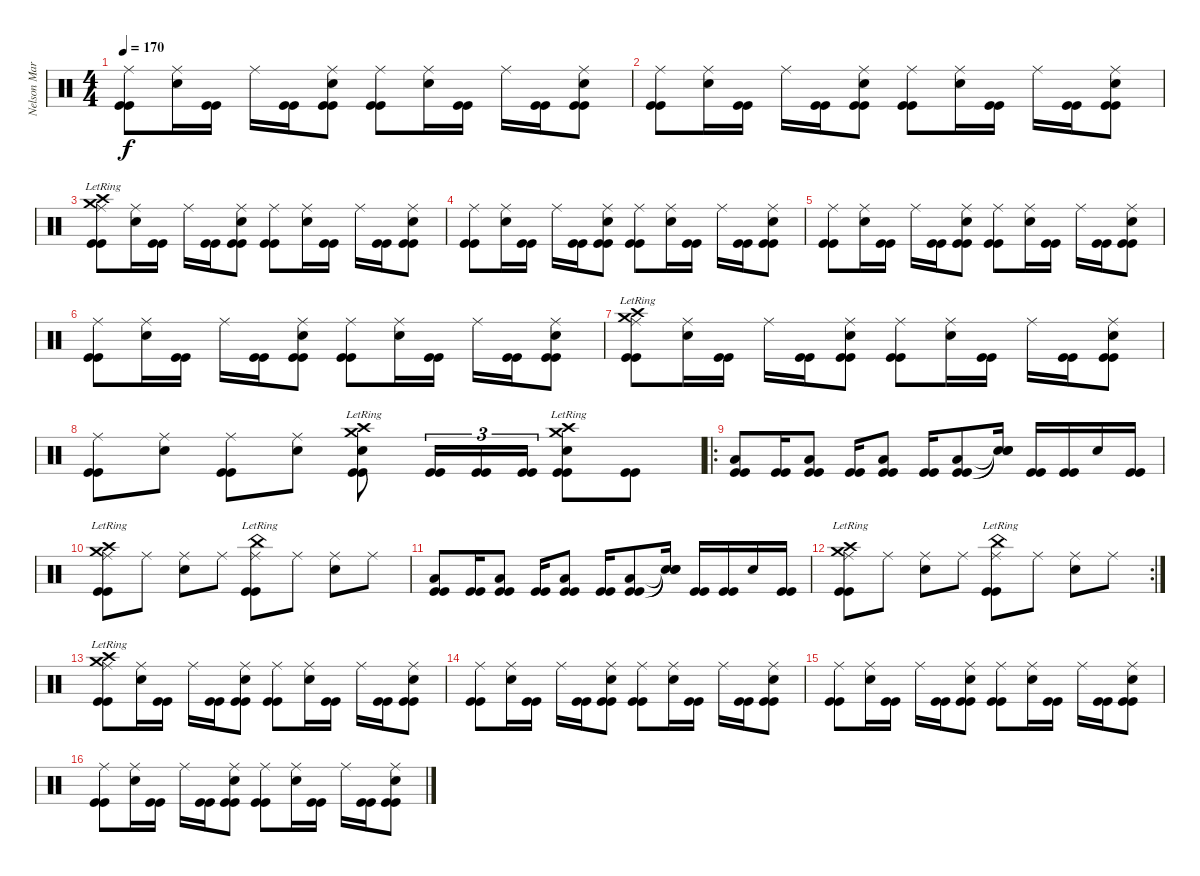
\track ("Nelson Maria" "Nelson Mar") {instrument percussion}
\staff {score}
\articulation defaults
\ts (4 4)
\tempo 170
\clef neutral
\ks c
("Ride (middle)" "Kick (hit)" "Kick (hit)").8{dy f} ("Snare (hit) 2" "Ride (middle)").16 ("Kick (hit)" "Kick (hit)").16 "Ride (middle)".16 ("Kick (hit)" "Kick (hit)").16 ("Snare (hit) 2" "Ride (middle)" "Kick (hit)" "Kick (hit)").8 ("Ride (middle)" "Kick (hit)" "Kick (hit)").8 ("Snare (hit) 2" "Ride (middle)").16 ("Kick (hit)" "Kick (hit)").16 "Ride (middle)".16 ("Kick (hit)" "Kick (hit)").16 ("Snare (hit) 2" "Ride (middle)" "Kick (hit)" "Kick (hit)").8 |
("Ride (middle)" "Kick (hit)" "Kick (hit)").8 ("Snare (hit) 2" "Ride (middle)").16 ("Kick (hit)" "Kick (hit)").16 "Ride (middle)".16 ("Kick (hit)" "Kick (hit)").16 ("Snare (hit) 2" "Ride (middle)" "Kick (hit)" "Kick (hit)").8 ("Ride (middle)" "Kick (hit)" "Kick (hit)").8 ("Snare (hit) 2" "Ride (middle)").16 ("Kick (hit)" "Kick (hit)").16 "Ride (middle)".16 ("Kick (hit)" "Kick (hit)").16 ("Snare (hit) 2" "Ride (middle)" "Kick (hit)" "Kick (hit)").8 |
("Crash high (hit)"{lr} "Crash medium (hit)"{lr} "Ride (middle)" "Kick (hit)" "Kick (hit)").8 ("Snare (hit) 2" "Ride (middle)").16 ("Kick (hit)" "Kick (hit)").16 "Ride (middle)".16 ("Kick (hit)" "Kick (hit)").16 ("Snare (hit) 2" "Ride (middle)" "Kick (hit)" "Kick (hit)").8 ("Ride (middle)" "Kick (hit)" "Kick (hit)").8 ("Snare (hit) 2" "Ride (middle)").16 ("Kick (hit)" "Kick (hit)").16 "Ride (middle)".16 ("Kick (hit)" "Kick (hit)").16 ("Snare (hit) 2" "Ride (middle)" "Kick (hit)" "Kick (hit)").8 |
("Ride (middle)" "Kick (hit)" "Kick (hit)").8 ("Snare (hit) 2" "Ride (middle)").16 ("Kick (hit)" "Kick (hit)").16 "Ride (middle)".16 ("Kick (hit)" "Kick (hit)").16 ("Snare (hit) 2" "Ride (middle)" "Kick (hit)" "Kick (hit)").8 ("Ride (middle)" "Kick (hit)" "Kick (hit)").8 ("Snare (hit) 2" "Ride (middle)").16 ("Kick (hit)" "Kick (hit)").16 "Ride (middle)".16 ("Kick (hit)" "Kick (hit)").16 ("Snare (hit) 2" "Ride (middle)" "Kick (hit)" "Kick (hit)").8 |
("Ride (middle)" "Kick (hit)" "Kick (hit)").8 ("Snare (hit) 2" "Ride (middle)").16 ("Kick (hit)" "Kick (hit)").16 "Ride (middle)".16 ("Kick (hit)" "Kick (hit)").16 ("Snare (hit) 2" "Ride (middle)" "Kick (hit)" "Kick (hit)").8 ("Ride (middle)" "Kick (hit)" "Kick (hit)").8 ("Snare (hit) 2" "Ride (middle)").16 ("Kick (hit)" "Kick (hit)").16 "Ride (middle)".16 ("Kick (hit)" "Kick (hit)").16 ("Snare (hit) 2" "Ride (middle)" "Kick (hit)" "Kick (hit)").8 |
("Ride (middle)" "Kick (hit)" "Kick (hit)").8 ("Snare (hit) 2" "Ride (middle)").16 ("Kick (hit)" "Kick (hit)").16 "Ride (middle)".16 ("Kick (hit)" "Kick (hit)").16 ("Snare (hit) 2" "Ride (middle)" "Kick (hit)" "Kick (hit)").8 ("Ride (middle)" "Kick (hit)" "Kick (hit)").8 ("Snare (hit) 2" "Ride (middle)").16 ("Kick (hit)" "Kick (hit)").16 "Ride (middle)".16 ("Kick (hit)" "Kick (hit)").16 ("Snare (hit) 2" "Ride (middle)" "Kick (hit)" "Kick (hit)").8 |
("Crash high (hit)"{lr} "Crash medium (hit)"{lr} "Ride (middle)" "Kick (hit)" "Kick (hit)").8 ("Snare (hit) 2" "Ride (middle)").16 ("Kick (hit)" "Kick (hit)").16 "Ride (middle)".16 ("Kick (hit)" "Kick (hit)").16 ("Snare (hit) 2" "Ride (middle)" "Kick (hit)" "Kick (hit)").8 ("Ride (middle)" "Kick (hit)" "Kick (hit)").8 ("Snare (hit) 2" "Ride (middle)").16 ("Kick (hit)" "Kick (hit)").16 "Ride (middle)".16 ("Kick (hit)" "Kick (hit)").16 ("Snare (hit) 2" "Ride (middle)" "Kick (hit)" "Kick (hit)").8 |
("Ride (middle)" "Kick (hit)" "Kick (hit)").8 ("Snare (hit) 2" "Ride (middle)").8 ("Ride (middle)" "Kick (hit)" "Kick (hit)").8 ("Snare (hit) 2" "Ride (middle)").8 ("Crash high (hit)"{lr} "Crash medium (hit)"{lr} "Snare (hit) 2" "Kick (hit)" "Kick (hit)").8 ("Kick (hit)" "Kick (hit)").16{tu (3 2)} ("Kick (hit)" "Kick (hit)").16{tu (3 2)} ("Kick (hit)" "Kick (hit)").16{tu (3 2)} ("Crash high (hit)"{lr} "Crash medium (hit)"{lr} "Snare (hit) 2" "Kick (hit)" "Kick (hit)").8 ("Kick (hit)" "Kick (hit)").8 |
\ro
("Low Tom (hit)" "Kick (hit)" "Kick (hit)").8 ("Kick (hit)" "Kick (hit)").16 ("Low Tom (hit)" "Kick (hit)" "Kick (hit)").8 ("Kick (hit)" "Kick (hit)").16 ("Low Tom (hit)" "Kick (hit)" "Kick (hit)").8 ("Kick (hit)" "Kick (hit)").16 ("Low Tom (hit)" "Kick (hit)" "Kick (hit)").8 ("Snare (hit)"{t} "Snare (hit)"{t} "Snare (hit)"{t}).16 ("Kick (hit)" "Kick (hit)").16 ("Kick (hit)" "Kick (hit)").16 "Snare (hit) 2".16 ("Kick (hit)" "Kick (hit)").16 |
("Crash high (hit)"{lr} "Crash medium (hit)"{lr} "Ride (middle)" "Kick (hit)" "Kick (hit)").8 "Ride (middle)".8 ("Snare (hit) 2" "Ride (middle)").8 "Ride (middle)".8 ("China (hit)"{lr} "Ride (middle)" "Kick (hit)" "Kick (hit)").8 "Ride (middle)".8 ("Snare (hit) 2" "Ride (middle)").8 "Ride (middle)".8 |
("Low Tom (hit)" "Kick (hit)" "Kick (hit)").8 ("Kick (hit)" "Kick (hit)").16 ("Low Tom (hit)" "Kick (hit)" "Kick (hit)").8 ("Kick (hit)" "Kick (hit)").16 ("Low Tom (hit)" "Kick (hit)" "Kick (hit)").8 ("Kick (hit)" "Kick (hit)").16 ("Low Tom (hit)" "Kick (hit)" "Kick (hit)").8 ("Snare (hit)"{t} "Snare (hit)"{t} "Snare (hit)"{t}).16 ("Kick (hit)" "Kick (hit)").16 ("Kick (hit)" "Kick (hit)").16 "Snare (hit) 2".16 ("Kick (hit)" "Kick (hit)").16 |
\rc 2
("Crash high (hit)"{lr} "Crash medium (hit)"{lr} "Ride (middle)" "Kick (hit)" "Kick (hit)").8 "Ride (middle)".8 ("Snare (hit) 2" "Ride (middle)").8 "Ride (middle)".8 ("China (hit)"{lr} "Ride (middle)" "Kick (hit)" "Kick (hit)").8 "Ride (middle)".8 ("Snare (hit) 2" "Ride (middle)").8 "Ride (middle)".8 |
("Crash high (hit)"{lr} "Crash medium (hit)"{lr} "Ride (middle)" "Kick (hit)" "Kick (hit)").8 ("Snare (hit) 2" "Ride (middle)").16 ("Kick (hit)" "Kick (hit)").16 "Ride (middle)".16 ("Kick (hit)" "Kick (hit)").16 ("Snare (hit) 2" "Ride (middle)" "Kick (hit)" "Kick (hit)").8 ("Ride (middle)" "Kick (hit)" "Kick (hit)").8 ("Snare (hit) 2" "Ride (middle)").16 ("Kick (hit)" "Kick (hit)").16 "Ride (middle)".16 ("Kick (hit)" "Kick (hit)").16 ("Snare (hit) 2" "Ride (middle)" "Kick (hit)" "Kick (hit)").8 |
("Ride (middle)" "Kick (hit)" "Kick (hit)").8 ("Snare (hit) 2" "Ride (middle)").16 ("Kick (hit)" "Kick (hit)").16 "Ride (middle)".16 ("Kick (hit)" "Kick (hit)").16 ("Snare (hit) 2" "Ride (middle)" "Kick (hit)" "Kick (hit)").8 ("Ride (middle)" "Kick (hit)" "Kick (hit)").8 ("Snare (hit) 2" "Ride (middle)").16 ("Kick (hit)" "Kick (hit)").16 "Ride (middle)".16 ("Kick (hit)" "Kick (hit)").16 ("Snare (hit) 2" "Ride (middle)" "Kick (hit)" "Kick (hit)").8 |
("Ride (middle)" "Kick (hit)" "Kick (hit)").8 ("Snare (hit) 2" "Ride (middle)").16 ("Kick (hit)" "Kick (hit)").16 "Ride (middle)".16 ("Kick (hit)" "Kick (hit)").16 ("Snare (hit) 2" "Ride (middle)" "Kick (hit)" "Kick (hit)").8 ("Ride (middle)" "Kick (hit)" "Kick (hit)").8 ("Snare (hit) 2" "Ride (middle)").16 ("Kick (hit)" "Kick (hit)").16 "Ride (middle)".16 ("Kick (hit)" "Kick (hit)").16 ("Snare (hit) 2" "Ride (middle)" "Kick (hit)" "Kick (hit)").8 |
("Ride (middle)" "Kick (hit)" "Kick (hit)").8 ("Snare (hit) 2" "Ride (middle)").16 ("Kick (hit)" "Kick (hit)").16 "Ride (middle)".16 ("Kick (hit)" "Kick (hit)").16 ("Snare (hit) 2" "Ride (middle)" "Kick (hit)" "Kick (hit)").8 ("Ride (middle)" "Kick (hit)" "Kick (hit)").8 ("Snare (hit) 2" "Ride (middle)").16 ("Kick (hit)" "Kick (hit)").16 "Ride (middle)".16 ("Kick (hit)" "Kick (hit)").16 ("Snare (hit) 2" "Ride (middle)" "Kick (hit)" "Kick (hit)").8
